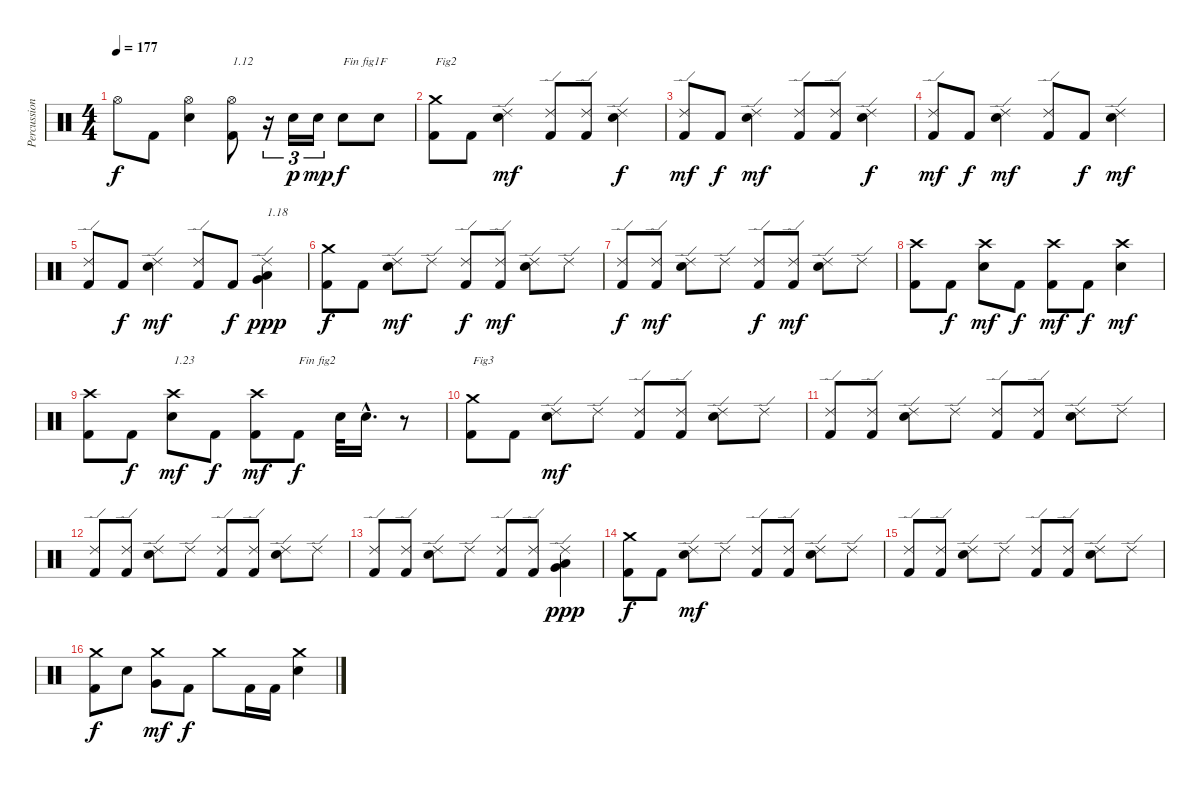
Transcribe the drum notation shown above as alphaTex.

\track ("Percussions" "Percussion") {instrument percussion}
\staff {score}
\articulation defaults
\ts (4 4)
\tempo 177
\clef neutral
\ks c "Hi-Hat (open)".8{dy f} "Kick (hit) 2".8
("Electric Snare (hit)" "Hi-Hat (open)").4 ("Kick (hit) 2" "Hi-Hat (open)").8{txt "1.12"} r.16{tu (3 2)} "Electric Snare (hit)".16{tu (3 2) dy p} "Electric Snare (hit)".16{tu (3 2) dy mp} "Electric Snare (hit)".8{txt "Fin fig1F" dy f} "Electric Snare (hit)".8 |
("Kick (hit) 2" "Crash medium (hit)").8{txt "Fig2"} "Kick (hit) 2".8 ("Electric Snare (hit)" "Ride (edge) 2").4{dy mf} ("Kick (hit) 2" "Ride (edge) 2").8 ("Kick (hit) 2" "Ride (edge) 2").8 ("Electric Snare (hit)" "Ride (edge) 2").4{dy f} |
("Kick (hit) 2" "Ride (edge) 2").8{dy mf} "Kick (hit) 2".8{dy f} ("Electric Snare (hit)" "Ride (edge) 2").4{dy mf} ("Kick (hit) 2" "Ride (edge) 2").8 ("Kick (hit) 2" "Ride (edge) 2").8 ("Electric Snare (hit)" "Ride (edge) 2").4{dy f} |
("Kick (hit) 2" "Ride (edge) 2").8{dy mf} "Kick (hit) 2".8{dy f} ("Electric Snare (hit)" "Ride (edge) 2").4{dy mf} ("Kick (hit) 2" "Ride (edge) 2").8 "Kick (hit) 2".8{dy f} ("Electric Snare (hit)" "Ride (edge) 2").4{dy mf} |
("Kick (hit) 2" "Ride (edge) 2").8 "Kick (hit) 2".8{dy f} ("Electric Snare (hit)" "Ride (edge) 2").4{dy mf} ("Kick (hit) 2" "Ride (edge) 2").8 "Kick (hit) 2".8{dy f} ("Low Floor Tom (hit)" "Very Low Tom (hit)" "Ride (edge) 2").4{txt "1.18" dy ppp} |
("Kick (hit) 2" "Crash medium (hit)").8{dy f} "Kick (hit) 2".8 ("Electric Snare (hit)" "Ride (edge) 2").8{dy mf} "Ride (edge) 2".8 ("Kick (hit) 2" "Ride (edge) 2").8{dy f} ("Kick (hit) 2" "Ride (edge) 2").8{dy mf} ("Electric Snare (hit)" "Ride (edge) 2").8 "Ride (edge) 2".8 |
("Kick (hit) 2" "Ride (edge) 2").8{dy f} ("Kick (hit) 2" "Ride (edge) 2").8{dy mf} ("Electric Snare (hit)" "Ride (edge) 2").8 "Ride (edge) 2".8 ("Kick (hit) 2" "Ride (edge) 2").8{dy f} ("Kick (hit) 2" "Ride (edge) 2").8{dy mf} ("Electric Snare (hit)" "Ride (edge) 2").8 "Ride (edge) 2".8 |
("Kick (hit) 2" "Crash high (hit)").8 "Kick (hit) 2".8{dy f} ("Electric Snare (hit)" "Crash high (hit)").8{dy mf} "Kick (hit) 2".8{dy f} ("Kick (hit) 2" "Crash high (hit)").8{dy mf} "Kick (hit) 2".8{dy f} ("Electric Snare (hit)" "Crash high (hit)").4{dy mf} |
("Kick (hit) 2" "Crash high (hit)").8 "Kick (hit) 2".8{dy f} ("Electric Snare (hit)" "Crash high (hit)").8{txt "1.23" dy mf} "Kick (hit) 2".8{dy f} ("Kick (hit) 2" "Crash high (hit)").8{dy mf} "Kick (hit) 2".8{txt "Fin fig2" dy f} "Electric Snare (hit)".32 "Electric Snare (hit)"{hac}.16{d} r.8 |
("Kick (hit) 2" "Crash medium (hit)").8{txt "Fig3"} "Kick (hit) 2".8 ("Electric Snare (hit)" "Ride (edge) 2").8{dy mf} "Ride (edge) 2".8 ("Kick (hit) 2" "Ride (edge) 2").8 ("Kick (hit) 2" "Ride (edge) 2").8 ("Electric Snare (hit)" "Ride (edge) 2").8 "Ride (edge) 2".8 |
("Kick (hit) 2" "Ride (edge) 2").8 ("Kick (hit) 2" "Ride (edge) 2").8 ("Electric Snare (hit)" "Ride (edge) 2").8 "Ride (edge) 2".8 ("Kick (hit) 2" "Ride (edge) 2").8 ("Kick (hit) 2" "Ride (edge) 2").8 ("Electric Snare (hit)" "Ride (edge) 2").8 "Ride (edge) 2".8 |
("Kick (hit) 2" "Ride (edge) 2").8 ("Kick (hit) 2" "Ride (edge) 2").8 ("Electric Snare (hit)" "Ride (edge) 2").8 "Ride (edge) 2".8 ("Kick (hit) 2" "Ride (edge) 2").8 ("Kick (hit) 2" "Ride (edge) 2").8 ("Electric Snare (hit)" "Ride (edge) 2").8 "Ride (edge) 2".8 |
("Kick (hit) 2" "Ride (edge) 2").8 ("Kick (hit) 2" "Ride (edge) 2").8 ("Electric Snare (hit)" "Ride (edge) 2").8 "Ride (edge) 2".8 ("Kick (hit) 2" "Ride (edge) 2").8 ("Kick (hit) 2" "Ride (edge) 2").8 ("Low Floor Tom (hit)" "Very Low Tom (hit)" "Ride (edge) 2").4{dy ppp} |
("Kick (hit) 2" "Crash medium (hit)").8{dy f} "Kick (hit) 2".8 ("Electric Snare (hit)" "Ride (edge) 2").8{dy mf} "Ride (edge) 2".8 ("Kick (hit) 2" "Ride (edge) 2").8 ("Kick (hit) 2" "Ride (edge) 2").8 ("Electric Snare (hit)" "Ride (edge) 2").8 "Ride (edge) 2".8 |
("Kick (hit) 2" "Ride (edge) 2").8 ("Kick (hit) 2" "Ride (edge) 2").8 ("Electric Snare (hit)" "Ride (edge) 2").8 "Ride (edge) 2".8 ("Kick (hit) 2" "Ride (edge) 2").8 ("Kick (hit) 2" "Ride (edge) 2").8 ("Electric Snare (hit)" "Ride (edge) 2").8 "Ride (edge) 2".8 |
("Kick (hit) 2" "Crash medium (hit)").8{dy f} "Electric Snare (hit)".8 ("Very Low Tom (hit)" "Crash medium (hit)").8{dy mf} "Kick (hit) 2".8{dy f} "Crash medium (hit)".8 "Kick (hit) 2".16 "Kick (hit) 2".16 ("Electric Snare (hit)" "Crash medium (hit)").4
